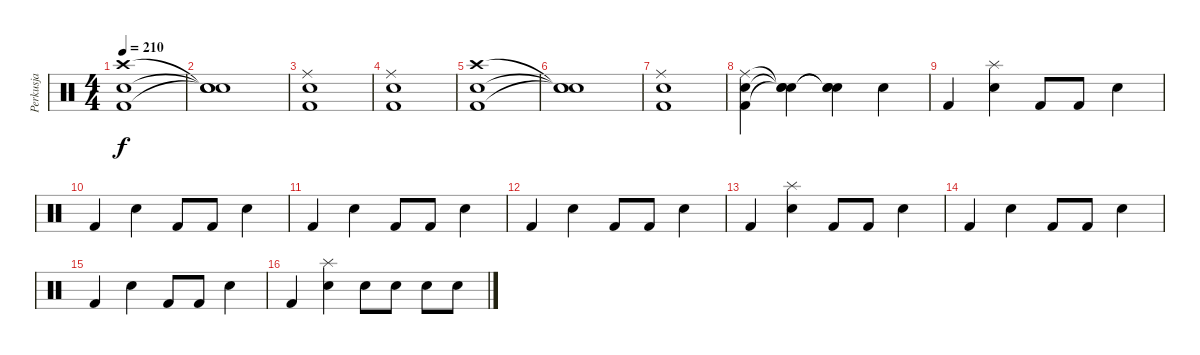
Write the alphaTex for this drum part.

\track ("Perkusja" "Perkusja") {instrument percussion}
\staff {score}
\articulation defaults
\ts (4 4)
\tempo 210
\clef neutral
\ks c
("Kick (hit) 2" "Snare (hit) 2" "Crash high (hit)").1{dy f} |
("Snare (hit)"{t} "Snare (hit)"{t} "Snare (hit)"{t}).1 |
("Snare (hit) 2" "Kick (hit) 2" "Ride (middle)").1 |
("Kick (hit) 2" "Snare (hit) 2" "Ride (middle)").1 |
("Kick (hit) 2" "Snare (hit) 2" "Crash high (hit)").1 |
("Snare (hit)"{t} "Snare (hit)"{t} "Snare (hit)"{t}).1 |
("Snare (hit) 2" "Kick (hit) 2" "Ride (middle)").1 |
("Kick (hit) 2" "Snare (hit) 2" "Ride (middle)").4 ("Snare (hit)"{t} "Snare (hit)"{t} "Snare (hit)"{t}).4 ("Snare (hit)"{t} "Snare (hit)"{t} "Snare (hit) 2").4 "Snare (hit) 2".4 |
"Kick (hit) 2".4 ("Snare (hit) 2" "Splash (hit)").4 "Kick (hit) 2".8 "Kick (hit) 2".8 "Snare (hit) 2".4 |
"Kick (hit) 2".4 "Snare (hit) 2".4 "Kick (hit) 2".8 "Kick (hit) 2".8 "Snare (hit) 2".4 |
"Kick (hit) 2".4 "Snare (hit) 2".4 "Kick (hit) 2".8 "Kick (hit) 2".8 "Snare (hit) 2".4 |
"Kick (hit) 2".4 "Snare (hit) 2".4 "Kick (hit) 2".8 "Kick (hit) 2".8 "Snare (hit) 2".4 |
"Kick (hit) 2".4 ("Snare (hit) 2" "Splash (hit)").4 "Kick (hit) 2".8 "Kick (hit) 2".8 "Snare (hit) 2".4 |
"Kick (hit) 2".4 "Snare (hit) 2".4 "Kick (hit) 2".8 "Kick (hit) 2".8 "Snare (hit) 2".4 |
"Kick (hit) 2".4 "Snare (hit) 2".4 "Kick (hit) 2".8 "Kick (hit) 2".8 "Snare (hit) 2".4 |
"Kick (hit) 2".4 ("Snare (hit) 2" "Splash (hit)").4 "Snare (hit) 2".8 "Snare (hit) 2".8 "Snare (hit) 2".8 "Snare (hit) 2".8
